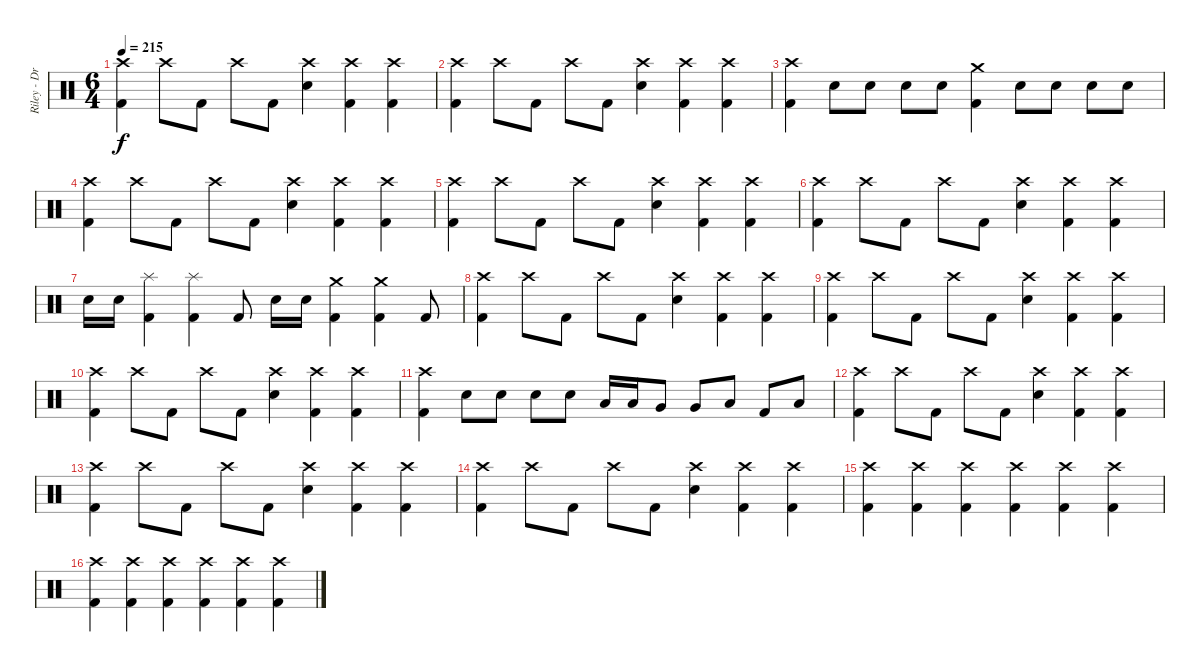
\track ("Riley - Drums" "Riley - Dr") {instrument percussion}
\staff {score}
\articulation defaults
\ts (6 4)
\tempo 215
\clef neutral
\ks c
("Crash high (hit)" "Kick (hit) 2").4{dy f} "Crash high (hit)".8 "Kick (hit) 2".8 "Crash high (hit)".8 "Kick (hit) 2".8 ("Crash high (hit)" "Electric Snare (hit)").4 ("Crash high (hit)" "Kick (hit) 2").4 ("Crash high (hit)" "Kick (hit) 2").4 |
("Crash high (hit)" "Kick (hit) 2").4 "Crash high (hit)".8 "Kick (hit) 2".8 "Crash high (hit)".8 "Kick (hit) 2".8 ("Crash high (hit)" "Electric Snare (hit)").4 ("Crash high (hit)" "Kick (hit) 2").4 ("Crash high (hit)" "Kick (hit) 2").4 |
("Crash high (hit)" "Kick (hit) 2").4 "Electric Snare (hit)".8 "Electric Snare (hit)".8 "Electric Snare (hit)".8 "Electric Snare (hit)".8 ("Crash medium (hit)" "Kick (hit) 2").4 "Electric Snare (hit)".8 "Electric Snare (hit)".8 "Electric Snare (hit)".8 "Electric Snare (hit)".8 |
("Crash high (hit)" "Kick (hit) 2").4 "Crash high (hit)".8 "Kick (hit) 2".8 "Crash high (hit)".8 "Kick (hit) 2".8 ("Crash high (hit)" "Electric Snare (hit)").4 ("Crash high (hit)" "Kick (hit) 2").4 ("Crash high (hit)" "Kick (hit) 2").4 |
("Crash high (hit)" "Kick (hit) 2").4 "Crash high (hit)".8 "Kick (hit) 2".8 "Crash high (hit)".8 "Kick (hit) 2".8 ("Crash high (hit)" "Electric Snare (hit)").4 ("Crash high (hit)" "Kick (hit) 2").4 ("Crash high (hit)" "Kick (hit) 2").4 |
("Crash high (hit)" "Kick (hit) 2").4 "Crash high (hit)".8 "Kick (hit) 2".8 "Crash high (hit)".8 "Kick (hit) 2".8 ("Crash high (hit)" "Electric Snare (hit)").4 ("Crash high (hit)" "Kick (hit) 2").4 ("Crash high (hit)" "Kick (hit) 2").4 |
"Electric Snare (hit)".16 "Electric Snare (hit)".16 ("Splash (hit)" "Kick (hit) 2").4 ("Splash (hit)" "Kick (hit) 2").4 "Kick (hit) 2".8 "Electric Snare (hit)".16 "Electric Snare (hit)".16 ("Crash medium (hit)" "Kick (hit) 2").4 ("Crash medium (hit)" "Kick (hit) 2").4 "Kick (hit) 2".8 |
("Crash high (hit)" "Kick (hit) 2").4 "Crash high (hit)".8 "Kick (hit) 2".8 "Crash high (hit)".8 "Kick (hit) 2".8 ("Crash high (hit)" "Electric Snare (hit)").4 ("Crash high (hit)" "Kick (hit) 2").4 ("Crash high (hit)" "Kick (hit) 2").4 |
("Crash high (hit)" "Kick (hit) 2").4 "Crash high (hit)".8 "Kick (hit) 2".8 "Crash high (hit)".8 "Kick (hit) 2".8 ("Crash high (hit)" "Electric Snare (hit)").4 ("Crash high (hit)" "Kick (hit) 2").4 ("Crash high (hit)" "Kick (hit) 2").4 |
("Crash high (hit)" "Kick (hit) 2").4 "Crash high (hit)".8 "Kick (hit) 2".8 "Crash high (hit)".8 "Kick (hit) 2".8 ("Crash high (hit)" "Electric Snare (hit)").4 ("Crash high (hit)" "Kick (hit) 2").4 ("Crash high (hit)" "Kick (hit) 2").4 |
("Crash high (hit)" "Kick (hit) 2").4 "Electric Snare (hit)".8 "Electric Snare (hit)".8 "Electric Snare (hit)".8 "Electric Snare (hit)".8 "Low Tom (hit)".16 "Low Tom (hit)".16 "Very Low Tom (hit)".8 "Very Low Tom (hit)".8 "Low Floor Tom (hit)".8 "Kick (hit) 2".8 "Low Floor Tom (hit)".8 |
("Crash high (hit)" "Kick (hit) 2").4 "Crash high (hit)".8 "Kick (hit) 2".8 "Crash high (hit)".8 "Kick (hit) 2".8 ("Crash high (hit)" "Electric Snare (hit)").4 ("Crash high (hit)" "Kick (hit) 2").4 ("Crash high (hit)" "Kick (hit) 2").4 |
("Crash high (hit)" "Kick (hit) 2").4 "Crash high (hit)".8 "Kick (hit) 2".8 "Crash high (hit)".8 "Kick (hit) 2".8 ("Crash high (hit)" "Electric Snare (hit)").4 ("Crash high (hit)" "Kick (hit) 2").4 ("Crash high (hit)" "Kick (hit) 2").4 |
("Crash high (hit)" "Kick (hit) 2").4 "Crash high (hit)".8 "Kick (hit) 2".8 "Crash high (hit)".8 "Kick (hit) 2".8 ("Crash high (hit)" "Electric Snare (hit)").4 ("Crash high (hit)" "Kick (hit) 2").4 ("Crash high (hit)" "Kick (hit) 2").4 |
("Crash high (hit)" "Kick (hit) 2").4 ("Crash high (hit)" "Kick (hit) 2").4 ("Crash high (hit)" "Kick (hit) 2").4 ("Crash high (hit)" "Kick (hit) 2").4 ("Crash high (hit)" "Kick (hit) 2").4 ("Crash high (hit)" "Kick (hit) 2").4 |
("Crash high (hit)" "Kick (hit) 2").4 ("Crash high (hit)" "Kick (hit) 2").4 ("Crash high (hit)" "Kick (hit) 2").4 ("Crash high (hit)" "Kick (hit) 2").4 ("Crash high (hit)" "Kick (hit) 2").4 ("Crash high (hit)" "Kick (hit) 2").4
